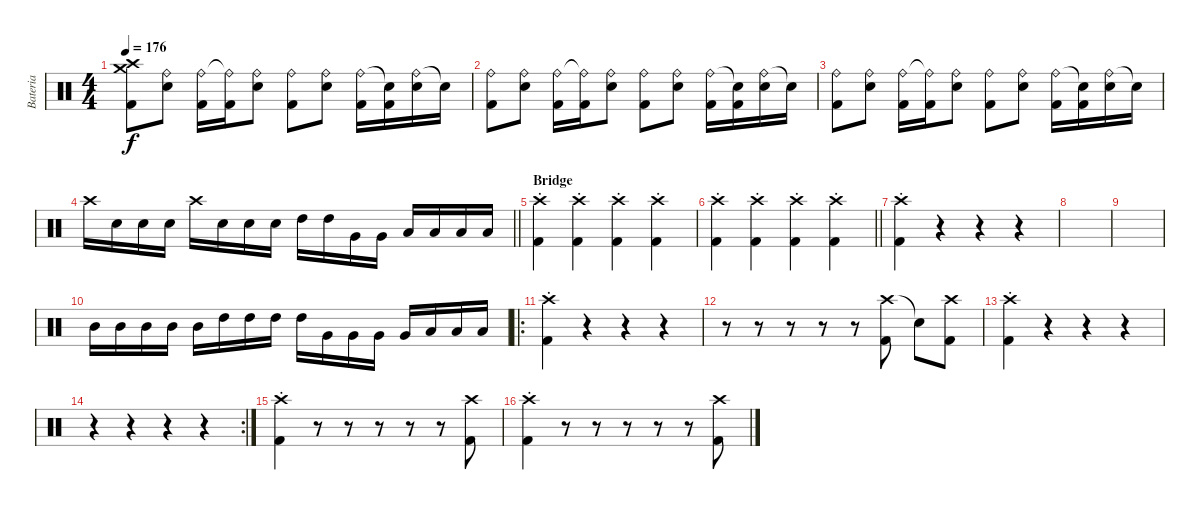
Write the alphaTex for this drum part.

\track ("Bateria" "Bateria") {instrument percussion}
\staff {score}
\articulation defaults
\ts (4 4)
\tempo 176
\clef neutral
\ks c
("Crash medium (hit)" "Crash high (hit)" "Kick (hit) 2").8{dy f} ("Ride (bell)" "Electric Snare (hit)").8 ("Ride (bell)" "Kick (hit) 2").16 ("Ride (bell)"{t} "Kick (hit) 2").16 ("Ride (bell)" "Electric Snare (hit)").8 ("Ride (bell)" "Kick (hit) 2").8 ("Ride (bell)" "Electric Snare (hit)").8 ("Ride (bell)" "Kick (hit) 2").16 ("Snare (hit)"{t} "Kick (hit) 2").16 ("Ride (bell)" "Electric Snare (hit)").16 "Snare (hit)"{t}.16 |
("Ride (bell)" "Kick (hit) 2").8 ("Ride (bell)" "Electric Snare (hit)").8 ("Ride (bell)" "Kick (hit) 2").16 ("Ride (bell)"{t} "Kick (hit) 2").16 ("Ride (bell)" "Electric Snare (hit)").8 ("Ride (bell)" "Kick (hit) 2").8 ("Ride (bell)" "Electric Snare (hit)").8 ("Ride (bell)" "Kick (hit) 2").16 ("Snare (hit)"{t} "Kick (hit) 2").16 ("Ride (bell)" "Electric Snare (hit)").16 "Snare (hit)"{t}.16 |
("Ride (bell)" "Kick (hit) 2").8 ("Ride (bell)" "Electric Snare (hit)").8 ("Ride (bell)" "Kick (hit) 2").16 ("Ride (bell)"{t} "Kick (hit) 2").16 ("Ride (bell)" "Electric Snare (hit)").8 ("Ride (bell)" "Kick (hit) 2").8 ("Ride (bell)" "Electric Snare (hit)").8 ("Ride (bell)" "Kick (hit) 2").16 ("Snare (hit)"{t} "Kick (hit) 2").16 ("Ride (bell)" "Electric Snare (hit)").16 "Snare (hit)"{t}.16 |
\barLineRight lightlight "Crash high (hit)".16 "Electric Snare (hit)".16 "Electric Snare (hit)".16 "Electric Snare (hit)".16 "Crash high (hit)".16 "Electric Snare (hit)".16 "Electric Snare (hit)".16 "Electric Snare (hit)".16 "High Tom (hit)".16 "High Tom (hit)".16 "Very Low Tom (hit)".16 "Very Low Tom (hit)".16 "Low Floor Tom (hit)".16 "Low Floor Tom (hit)".16 "Low Floor Tom (hit)".16 "Low Floor Tom (hit)".16
|
\section ("" "Bridge")
("Crash high (hit)"{st} "Kick (hit) 2").4 ("Crash high (hit)"{st} "Kick (hit) 2").4 ("Crash high (hit)"{st} "Kick (hit) 2").4 ("Crash high (hit)"{st} "Kick (hit) 2").4 |
\barLineRight lightlight
("Crash high (hit)"{st} "Kick (hit) 2").4 ("Crash high (hit)"{st} "Kick (hit) 2").4 ("Crash high (hit)"{st} "Kick (hit) 2").4 ("Crash high (hit)"{st} "Kick (hit) 2").4 |
("Crash high (hit)"{st} "Kick (hit) 2").4 r.4 r.4 r.4 |
|
|
"Mid Tom (hit)".16 "Mid Tom (hit)".16 "Mid Tom (hit)".16 "Mid Tom (hit)".16 "Mid Tom (hit)".16 "High Tom (hit)".16 "High Tom (hit)".16 "High Tom (hit)".16 "High Tom (hit)".16 "Very Low Tom (hit)".16 "Very Low Tom (hit)".16 "Very Low Tom (hit)".16 "Very Low Tom (hit)".16 "Low Floor Tom (hit)".16 "Low Floor Tom (hit)".16 "Low Floor Tom (hit)".16 |
\ro
("Crash high (hit)"{st} "Kick (hit) 2").4 r.4 r.4 r.4 |
r.8 r.8 r.8 r.8 r.8 ("Crash high (hit)" "Kick (hit) 2").8 "Snare (hit)"{t}.8 ("Crash high (hit)" "Kick (hit) 2").8 |
("Crash high (hit)"{st} "Kick (hit) 2").4 r.4 r.4 r.4 |
\rc 2
r.4 r.4 r.4 r.4 |
("Crash high (hit)"{st} "Kick (hit) 2").4 r.8 r.8 r.8 r.8 r.8 ("Crash high (hit)" "Kick (hit) 2").8 |
("Crash high (hit)"{st} "Kick (hit) 2").4 r.8 r.8 r.8 r.8 r.8 ("Crash high (hit)" "Kick (hit) 2").8
